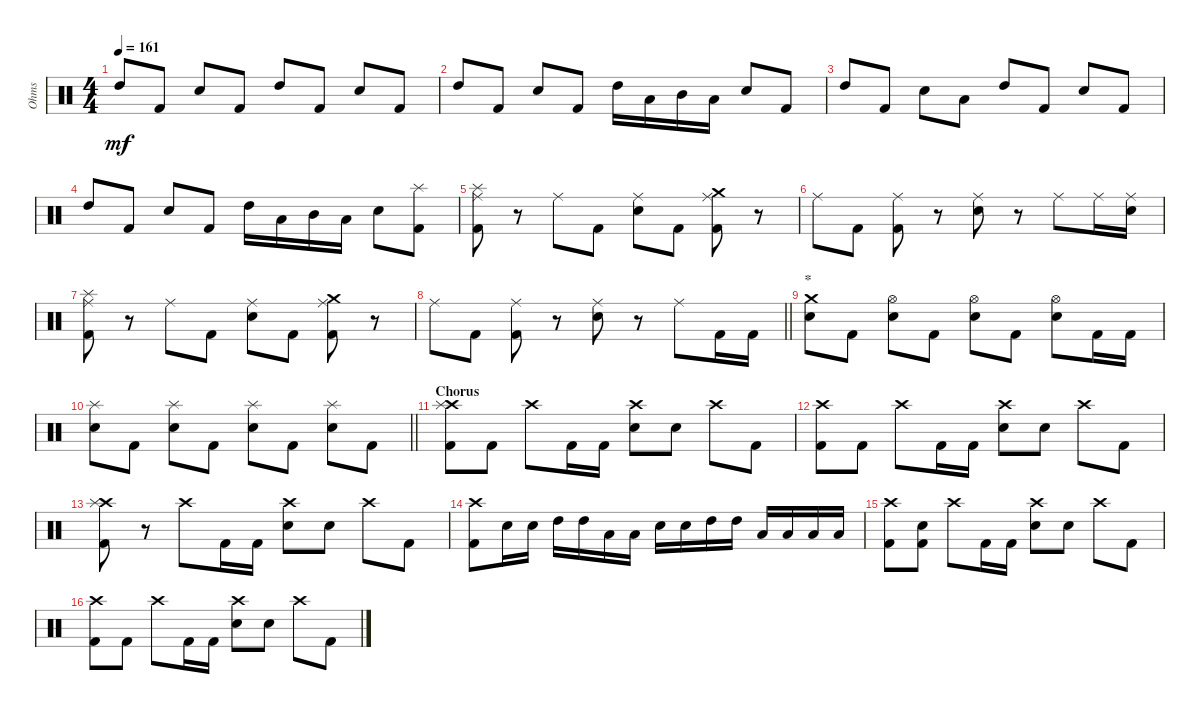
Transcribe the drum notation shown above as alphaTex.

\track ("Ohms" "Ohms") {instrument percussion}
\staff {score}
\articulation defaults
\ts (4 4)
\tempo 161
\clef neutral
\ks c "High Tom (hit)".8{dy mf} "Kick (hit) 2".8 "Snare (hit) 2".8 "Kick (hit) 2".8 "High Tom (hit)".8 "Kick (hit) 2".8 "Snare (hit) 2".8 "Kick (hit) 2".8
|
"High Tom (hit)".8 "Kick (hit) 2".8 "Snare (hit) 2".8 "Kick (hit) 2".8 "High Tom (hit)".16 "Low Tom (hit)".16 "Mid Tom (hit)".16 "Low Tom (hit)".16 "Snare (hit) 2".8 "Kick (hit) 2".8 |
"High Tom (hit)".8 "Kick (hit) 2".8 "Snare (hit) 2".8 "Low Tom (hit)".8 "High Tom (hit)".8 "Kick (hit) 2".8 "Snare (hit) 2".8 "Kick (hit) 2".8 |
"High Tom (hit)".8 "Kick (hit) 2".8 "Snare (hit) 2".8 "Kick (hit) 2".8 "High Tom (hit)".16 "Low Tom (hit)".16 "Mid Tom (hit)".16 "Low Tom (hit)".16 "Snare (hit) 2".8 ("Splash (hit)" "Kick (hit) 2").8 |
("Ride (middle)" "Splash (hit)" "Kick (hit) 2").8 r.8 "Ride (middle)".8 "Kick (hit) 2".8 ("Ride (middle)" "Snare (hit) 2").8 "Kick (hit) 2".8 ("Ride (middle)" "Crash medium (hit)" "Kick (hit) 2").8 r.8 |
"Ride (middle)".8 "Kick (hit) 2".8 ("Ride (middle)" "Kick (hit) 2").8 r.8 ("Ride (middle)" "Snare (hit) 2").8 r.8 "Ride (middle)".8 "Ride (middle)".16 ("Ride (middle)" "Snare (hit) 2").16 |
("Ride (middle)" "Splash (hit)" "Kick (hit) 2").8 r.8 "Ride (middle)".8 "Kick (hit) 2".8 ("Ride (middle)" "Snare (hit) 2").8 "Kick (hit) 2".8 ("Ride (middle)" "Crash medium (hit)" "Kick (hit) 2").8 r.8 |
\barLineRight lightlight "Ride (middle)".8 "Kick (hit) 2".8
("Ride (middle)" "Kick (hit) 2").8 r.8 ("Ride (middle)" "Snare (hit) 2").8 r.8 "Ride (middle)".8 "Kick (hit) 2".16 "Kick (hit) 2".16 |
\section ("" "*")
("Crash medium (hit)" "Snare (hit) 2").8 "Kick (hit) 2".8 ("Hi-Hat (open)" "Snare (hit) 2").8 "Kick (hit) 2".8 ("Hi-Hat (open)" "Snare (hit) 2").8 "Kick (hit) 2".8 ("Hi-Hat (open)" "Snare (hit) 2").8 "Kick (hit) 2".16 "Kick (hit) 2".16 |
\barLineRight lightlight
("Splash (hit)" "Snare (hit) 2").8 "Kick (hit) 2".8 ("Splash (hit)" "Snare (hit) 2").8 "Kick (hit) 2".8 ("Splash (hit)" "Snare (hit) 2").8 "Kick (hit) 2".8 ("Splash (hit)" "Snare (hit) 2").8 "Kick (hit) 2".8 |
\section ("" "Chorus")
("Crash high (hit)" "Splash (hit)" "Kick (hit) 2").8 "Kick (hit) 2".8 "Crash high (hit)".8 "Kick (hit) 2".16 "Kick (hit) 2".16 ("Crash high (hit)" "Snare (hit) 2").8 "Snare (hit) 2".8 "Crash high (hit)".8 "Kick (hit) 2".8 |
("Crash high (hit)" "Kick (hit) 2").8 "Kick (hit) 2".8 "Crash high (hit)".8 "Kick (hit) 2".16 "Kick (hit) 2".16 ("Crash high (hit)" "Snare (hit) 2").8 "Snare (hit) 2".8 "Crash high (hit)".8 "Kick (hit) 2".8 |
("Crash high (hit)" "Splash (hit)" "Kick (hit) 2").8 r.8 "Crash high (hit)".8 "Kick (hit) 2".16 "Kick (hit) 2".16 ("Crash high (hit)" "Snare (hit) 2").8 "Snare (hit) 2".8 "Crash high (hit)".8 "Kick (hit) 2".8 |
("Crash high (hit)" "Kick (hit) 2").8 "Snare (hit) 2".16 "Snare (hit) 2".16 "High Tom (hit)".16 "High Tom (hit)".16 "Low Tom (hit)".16 "Low Tom (hit)".16 "Snare (hit) 2".16 "Snare (hit) 2".16 "High Tom (hit)".16 "High Tom (hit)".16 "Low Tom (hit)".16 "Low Tom (hit)".16 "Low Tom (hit)".16 "Low Tom (hit)".16 |
("Crash high (hit)" "Kick (hit) 2").8 ("Snare (hit) 2" "Kick (hit) 2").8 "Crash high (hit)".8 "Kick (hit) 2".16 "Kick (hit) 2".16 ("Crash high (hit)" "Snare (hit) 2").8 "Snare (hit) 2".8 "Crash high (hit)".8 "Kick (hit) 2".8 |
("Crash high (hit)" "Kick (hit) 2").8 "Kick (hit) 2".8 "Crash high (hit)".8 "Kick (hit) 2".16 "Kick (hit) 2".16 ("Crash high (hit)" "Snare (hit) 2").8 "Snare (hit) 2".8 "Crash high (hit)".8 "Kick (hit) 2".8
